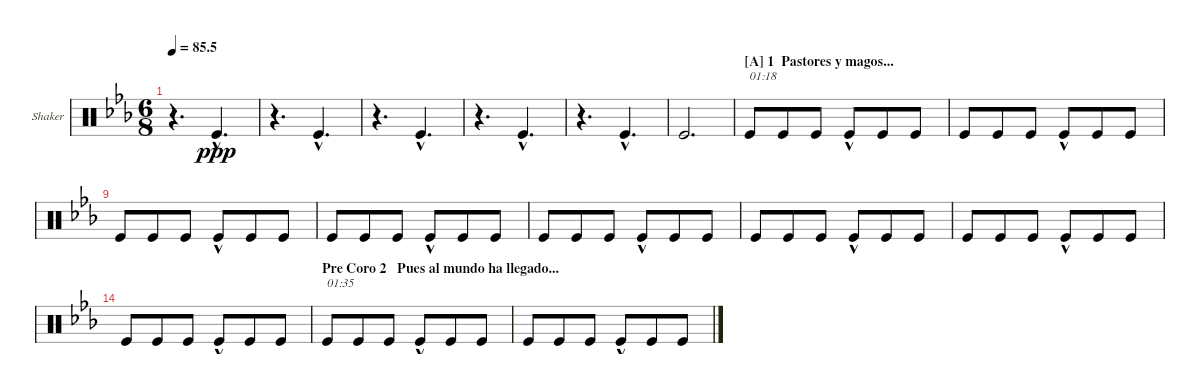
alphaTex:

\defaultSystemsLayout 4
\bracketExtendMode groupsimilarinstruments
\multiTrackTrackNamePolicy allsystems
\firstSystemTrackNameOrientation horizontal
\otherSystemsTrackNameOrientation horizontal
\defaultBarNumberDisplay FirstOfSystem
\track ("Shaker" "Shaker") {instrument percussion}
\staff {score}
\articulation defaults
\ts (6 8)
\tempo
85.5
\accidentals auto
\clef neutral
\ottava regular
\simile none
\scale
0.333333
\ks eb
r.4{d dy ppp} "Kick (hit)"{hac}.4{d} |
\scale
0.333333 r.4{d} "Kick (hit)"{hac}.4{d} |
\scale
0.333333 r.4{d} "Kick (hit)"{hac}.4{d} |
\scale
0.333333 r.4{d} "Kick (hit)"{hac}.4{d} |
\scale
0.333333 r.4{d} "Kick (hit)"{hac}.4{d} |
\scale
0.333333 "Kick (hit)".2{d} |
\section ("A" "1  Pastores y magos...")
\scale
0.333333 "Kick (hit)".8{txt "01:18"} "Kick (hit)".8 "Kick (hit)".8 "Kick (hit)"{hac}.8 "Kick (hit)".8 "Kick (hit)".8 |
\scale
0.333333 "Kick (hit)".8 "Kick (hit)".8 "Kick (hit)".8 "Kick (hit)"{hac}.8 "Kick (hit)".8 "Kick (hit)".8 |
\scale
0.333333 "Kick (hit)".8 "Kick (hit)".8 "Kick (hit)".8 "Kick (hit)"{hac}.8 "Kick (hit)".8 "Kick (hit)".8 |
\scale
0.333333 "Kick (hit)".8 "Kick (hit)".8 "Kick (hit)".8 "Kick (hit)"{hac}.8 "Kick (hit)".8 "Kick (hit)".8 |
\scale
0.333333 "Kick (hit)".8 "Kick (hit)".8 "Kick (hit)".8 "Kick (hit)"{hac}.8 "Kick (hit)".8 "Kick (hit)".8 |
\scale
0.333333 "Kick (hit)".8 "Kick (hit)".8 "Kick (hit)".8 "Kick (hit)"{hac}.8 "Kick (hit)".8 "Kick (hit)".8 |
\scale
0.333333 "Kick (hit)".8 "Kick (hit)".8 "Kick (hit)".8 "Kick (hit)"{hac}.8 "Kick (hit)".8 "Kick (hit)".8 |
\scale
0.333333 "Kick (hit)".8 "Kick (hit)".8 "Kick (hit)".8 "Kick (hit)"{hac}.8 "Kick (hit)".8 "Kick (hit)".8 |
\section ("" "Pre Coro 2   Pues al mundo ha llegado...")
\scale
0.333333 "Kick (hit)".8{txt "01:35"} "Kick (hit)".8 "Kick (hit)".8 "Kick (hit)"{hac}.8 "Kick (hit)".8 "Kick (hit)".8 |
\scale
0.333333 "Kick (hit)".8 "Kick (hit)".8 "Kick (hit)".8 "Kick (hit)"{hac}.8 "Kick (hit)".8 "Kick (hit)".8
